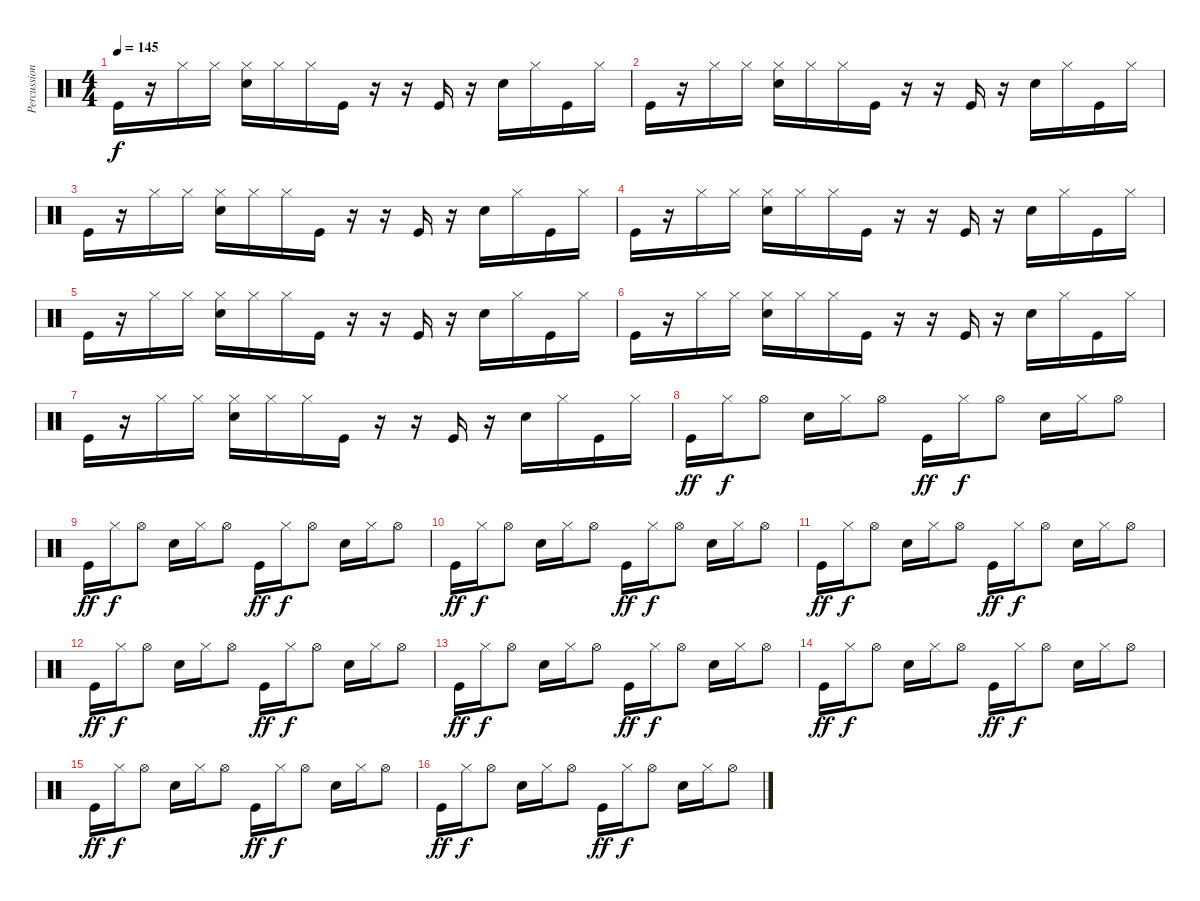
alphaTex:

\track ("Percussion" "Percussion") {instrument percussion}
\staff {score}
\articulation defaults
\ts (4 4)
\tempo 145
\clef neutral
\ks c "Kick (hit)".16{dy f}
r.16 "Hi-Hat (closed)".16 "Hi-Hat (closed)".16 ("Hi-Hat (closed)" "Snare (hit) 2").16 "Hi-Hat (closed)".16 "Hi-Hat (closed)".16 "Kick (hit)".16 r.16 r.16 "Kick (hit)".16 r.16 "Snare (hit) 2".16 "Hi-Hat (closed)".16 "Kick (hit)".16 "Hi-Hat (closed)".16 |
"Kick (hit)".16 r.16 "Hi-Hat (closed)".16 "Hi-Hat (closed)".16 ("Hi-Hat (closed)" "Snare (hit) 2").16 "Hi-Hat (closed)".16 "Hi-Hat (closed)".16 "Kick (hit)".16 r.16 r.16 "Kick (hit)".16 r.16 "Snare (hit) 2".16 "Hi-Hat (closed)".16 "Kick (hit)".16 "Hi-Hat (closed)".16 |
"Kick (hit)".16 r.16 "Hi-Hat (closed)".16 "Hi-Hat (closed)".16 ("Hi-Hat (closed)" "Snare (hit) 2").16 "Hi-Hat (closed)".16 "Hi-Hat (closed)".16 "Kick (hit)".16 r.16 r.16 "Kick (hit)".16 r.16 "Snare (hit) 2".16 "Hi-Hat (closed)".16 "Kick (hit)".16 "Hi-Hat (closed)".16 |
"Kick (hit)".16 r.16 "Hi-Hat (closed)".16 "Hi-Hat (closed)".16 ("Hi-Hat (closed)" "Snare (hit) 2").16 "Hi-Hat (closed)".16 "Hi-Hat (closed)".16 "Kick (hit)".16 r.16 r.16 "Kick (hit)".16 r.16 "Snare (hit) 2".16 "Hi-Hat (closed)".16 "Kick (hit)".16 "Hi-Hat (closed)".16 |
"Kick (hit)".16 r.16 "Hi-Hat (closed)".16 "Hi-Hat (closed)".16 ("Hi-Hat (closed)" "Snare (hit) 2").16 "Hi-Hat (closed)".16 "Hi-Hat (closed)".16 "Kick (hit)".16 r.16 r.16 "Kick (hit)".16 r.16 "Snare (hit) 2".16 "Hi-Hat (closed)".16 "Kick (hit)".16 "Hi-Hat (closed)".16 |
"Kick (hit)".16 r.16 "Hi-Hat (closed)".16 "Hi-Hat (closed)".16 ("Hi-Hat (closed)" "Snare (hit) 2").16 "Hi-Hat (closed)".16 "Hi-Hat (closed)".16 "Kick (hit)".16 r.16 r.16 "Kick (hit)".16 r.16 "Snare (hit) 2".16 "Hi-Hat (closed)".16 "Kick (hit)".16 "Hi-Hat (closed)".16 |
"Kick (hit)".16 r.16 "Hi-Hat (closed)".16 "Hi-Hat (closed)".16 ("Hi-Hat (closed)" "Snare (hit) 2").16 "Hi-Hat (closed)".16 "Hi-Hat (closed)".16 "Kick (hit)".16 r.16 r.16 "Kick (hit)".16 r.16 "Snare (hit) 2".16 "Hi-Hat (closed)".16 "Kick (hit)".16 "Hi-Hat (closed)".16 |
"Kick (hit)".16{dy ff} "Hi-Hat (closed)".16{dy f} "Hi-Hat (open)".8 "Electric Snare (hit)".16 "Hi-Hat (closed)".16 "Hi-Hat (open)".8 "Kick (hit)".16{dy ff} "Hi-Hat (closed)".16{dy f} "Hi-Hat (open)".8 "Electric Snare (hit)".16 "Hi-Hat (closed)".16 "Hi-Hat (open)".8 |
"Kick (hit)".16{dy ff} "Hi-Hat (closed)".16{dy f} "Hi-Hat (open)".8 "Electric Snare (hit)".16 "Hi-Hat (closed)".16 "Hi-Hat (open)".8 "Kick (hit)".16{dy ff} "Hi-Hat (closed)".16{dy f} "Hi-Hat (open)".8 "Electric Snare (hit)".16 "Hi-Hat (closed)".16 "Hi-Hat (open)".8 |
"Kick (hit)".16{dy ff} "Hi-Hat (closed)".16{dy f} "Hi-Hat (open)".8 "Electric Snare (hit)".16 "Hi-Hat (closed)".16 "Hi-Hat (open)".8 "Kick (hit)".16{dy ff} "Hi-Hat (closed)".16{dy f} "Hi-Hat (open)".8 "Electric Snare (hit)".16 "Hi-Hat (closed)".16 "Hi-Hat (open)".8 |
"Kick (hit)".16{dy ff} "Hi-Hat (closed)".16{dy f} "Hi-Hat (open)".8 "Electric Snare (hit)".16 "Hi-Hat (closed)".16 "Hi-Hat (open)".8 "Kick (hit)".16{dy ff} "Hi-Hat (closed)".16{dy f} "Hi-Hat (open)".8 "Electric Snare (hit)".16 "Hi-Hat (closed)".16 "Hi-Hat (open)".8 |
"Kick (hit)".16{dy ff} "Hi-Hat (closed)".16{dy f} "Hi-Hat (open)".8 "Electric Snare (hit)".16 "Hi-Hat (closed)".16 "Hi-Hat (open)".8 "Kick (hit)".16{dy ff} "Hi-Hat (closed)".16{dy f} "Hi-Hat (open)".8 "Electric Snare (hit)".16 "Hi-Hat (closed)".16 "Hi-Hat (open)".8 |
"Kick (hit)".16{dy ff} "Hi-Hat (closed)".16{dy f} "Hi-Hat (open)".8 "Electric Snare (hit)".16 "Hi-Hat (closed)".16 "Hi-Hat (open)".8 "Kick (hit)".16{dy ff} "Hi-Hat (closed)".16{dy f} "Hi-Hat (open)".8 "Electric Snare (hit)".16 "Hi-Hat (closed)".16 "Hi-Hat (open)".8 |
"Kick (hit)".16{dy ff} "Hi-Hat (closed)".16{dy f} "Hi-Hat (open)".8 "Electric Snare (hit)".16 "Hi-Hat (closed)".16 "Hi-Hat (open)".8 "Kick (hit)".16{dy ff} "Hi-Hat (closed)".16{dy f} "Hi-Hat (open)".8 "Electric Snare (hit)".16 "Hi-Hat (closed)".16 "Hi-Hat (open)".8 |
"Kick (hit)".16{dy ff} "Hi-Hat (closed)".16{dy f} "Hi-Hat (open)".8 "Electric Snare (hit)".16 "Hi-Hat (closed)".16 "Hi-Hat (open)".8 "Kick (hit)".16{dy ff} "Hi-Hat (closed)".16{dy f} "Hi-Hat (open)".8 "Electric Snare (hit)".16 "Hi-Hat (closed)".16 "Hi-Hat (open)".8 |
"Kick (hit)".16{dy ff volume 0} "Hi-Hat (closed)".16{dy f} "Hi-Hat (open)".8 "Electric Snare (hit)".16 "Hi-Hat (closed)".16 "Hi-Hat (open)".8 "Kick (hit)".16{dy ff} "Hi-Hat (closed)".16{dy f} "Hi-Hat (open)".8 "Electric Snare (hit)".16 "Hi-Hat (closed)".16 "Hi-Hat (open)".8
